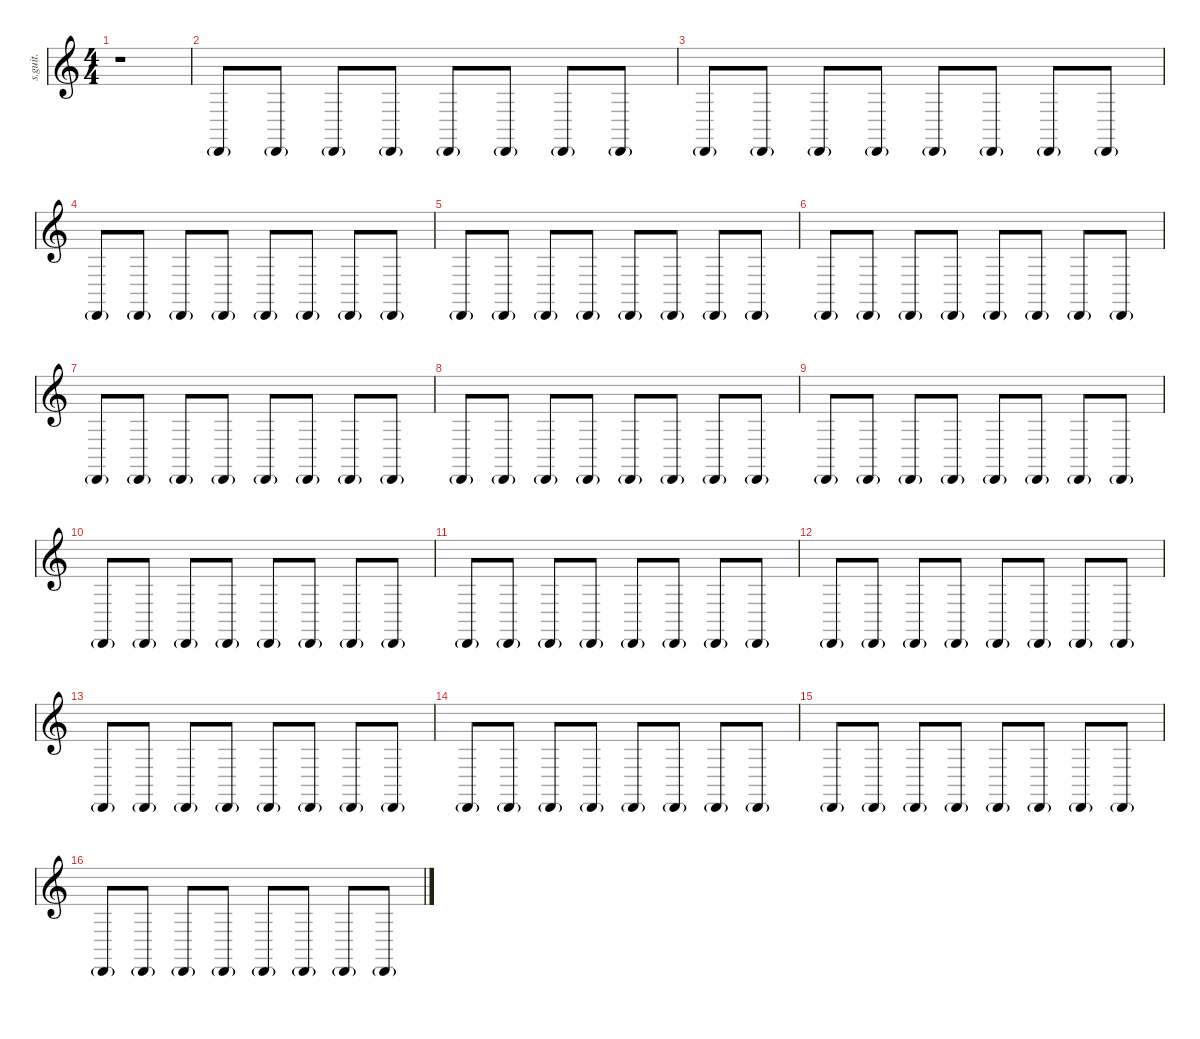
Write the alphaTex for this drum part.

\defaultSystemsLayout 4
\hideDynamics
\bracketExtendMode nobrackets
\track ("Shaker" "s.guit.") {instrument percussion}
\staff {score}
\articulation defaults
\ts (4 4)
\tempo (124 hide)
\clef g2
\ks c
r.1{dy mp} |
"Cabasa (hit)"{g}.8{lyrics (0 "") lyrics (1 "") lyrics (2 "") lyrics (3 "") lyrics (4 "") dy p} "Cabasa (hit)"{g}.8{lyrics (0 "") lyrics (1 "") lyrics (2 "") lyrics (3 "") lyrics (4 "") dy pp} "Cabasa (hit)"{g}.8{lyrics (0 "") lyrics (1 "") lyrics (2 "") lyrics (3 "") lyrics (4 "") dy p} "Cabasa (hit)"{g}.8{lyrics (0 "") lyrics (1 "") lyrics (2 "") lyrics (3 "") lyrics (4 "") dy pp} "Cabasa (hit)"{g}.8{lyrics (0 "") lyrics (1 "") lyrics (2 "") lyrics (3 "") lyrics (4 "") dy p} "Cabasa (hit)"{g}.8{lyrics (0 "") lyrics (1 "") lyrics (2 "") lyrics (3 "") lyrics (4 "") dy pp} "Cabasa (hit)"{g}.8{lyrics (0 "") lyrics (1 "") lyrics (2 "") lyrics (3 "") lyrics (4 "") dy p} "Cabasa (hit)"{g}.8{lyrics (0 "") lyrics (1 "") lyrics (2 "") lyrics (3 "") lyrics (4 "") dy pp} |
"Cabasa (hit)"{g}.8{lyrics (0 "") lyrics (1 "") lyrics (2 "") lyrics (3 "") lyrics (4 "") dy p} "Cabasa (hit)"{g}.8{lyrics (0 "") lyrics (1 "") lyrics (2 "") lyrics (3 "") lyrics (4 "") dy pp} "Cabasa (hit)"{g}.8{lyrics (0 "") lyrics (1 "") lyrics (2 "") lyrics (3 "") lyrics (4 "") dy p} "Cabasa (hit)"{g}.8{lyrics (0 "") lyrics (1 "") lyrics (2 "") lyrics (3 "") lyrics (4 "") dy pp} "Cabasa (hit)"{g}.8{lyrics (0 "") lyrics (1 "") lyrics (2 "") lyrics (3 "") lyrics (4 "") dy p} "Cabasa (hit)"{g}.8{lyrics (0 "") lyrics (1 "") lyrics (2 "") lyrics (3 "") lyrics (4 "") dy pp} "Cabasa (hit)"{g}.8{lyrics (0 "") lyrics (1 "") lyrics (2 "") lyrics (3 "") lyrics (4 "") dy p} "Cabasa (hit)"{g}.8{lyrics (0 "") lyrics (1 "") lyrics (2 "") lyrics (3 "") lyrics (4 "") dy pp} |
"Cabasa (hit)"{g}.8{lyrics (0 "") lyrics (1 "") lyrics (2 "") lyrics (3 "") lyrics (4 "") dy p} "Cabasa (hit)"{g}.8{lyrics (0 "") lyrics (1 "") lyrics (2 "") lyrics (3 "") lyrics (4 "") dy pp} "Cabasa (hit)"{g}.8{lyrics (0 "") lyrics (1 "") lyrics (2 "") lyrics (3 "") lyrics (4 "") dy p} "Cabasa (hit)"{g}.8{lyrics (0 "") lyrics (1 "") lyrics (2 "") lyrics (3 "") lyrics (4 "") dy pp} "Cabasa (hit)"{g}.8{lyrics (0 "") lyrics (1 "") lyrics (2 "") lyrics (3 "") lyrics (4 "") dy p} "Cabasa (hit)"{g}.8{lyrics (0 "") lyrics (1 "") lyrics (2 "") lyrics (3 "") lyrics (4 "") dy pp} "Cabasa (hit)"{g}.8{lyrics (0 "") lyrics (1 "") lyrics (2 "") lyrics (3 "") lyrics (4 "") dy p} "Cabasa (hit)"{g}.8{lyrics (0 "") lyrics (1 "") lyrics (2 "") lyrics (3 "") lyrics (4 "") dy pp} |
"Cabasa (hit)"{g}.8{lyrics (0 "") lyrics (1 "") lyrics (2 "") lyrics (3 "") lyrics (4 "") dy p} "Cabasa (hit)"{g}.8{lyrics (0 "") lyrics (1 "") lyrics (2 "") lyrics (3 "") lyrics (4 "") dy pp} "Cabasa (hit)"{g}.8{lyrics (0 "") lyrics (1 "") lyrics (2 "") lyrics (3 "") lyrics (4 "") dy p} "Cabasa (hit)"{g}.8{lyrics (0 "") lyrics (1 "") lyrics (2 "") lyrics (3 "") lyrics (4 "") dy pp} "Cabasa (hit)"{g}.8{lyrics (0 "") lyrics (1 "") lyrics (2 "") lyrics (3 "") lyrics (4 "") dy p} "Cabasa (hit)"{g}.8{lyrics (0 "") lyrics (1 "") lyrics (2 "") lyrics (3 "") lyrics (4 "") dy pp} "Cabasa (hit)"{g}.8{lyrics (0 "") lyrics (1 "") lyrics (2 "") lyrics (3 "") lyrics (4 "") dy p} "Cabasa (hit)"{g}.8{lyrics (0 "") lyrics (1 "") lyrics (2 "") lyrics (3 "") lyrics (4 "") dy pp} |
"Cabasa (hit)"{g}.8{lyrics (0 "") lyrics (1 "") lyrics (2 "") lyrics (3 "") lyrics (4 "") dy p} "Cabasa (hit)"{g}.8{lyrics (0 "") lyrics (1 "") lyrics (2 "") lyrics (3 "") lyrics (4 "") dy pp} "Cabasa (hit)"{g}.8{lyrics (0 "") lyrics (1 "") lyrics (2 "") lyrics (3 "") lyrics (4 "") dy p} "Cabasa (hit)"{g}.8{lyrics (0 "") lyrics (1 "") lyrics (2 "") lyrics (3 "") lyrics (4 "") dy pp} "Cabasa (hit)"{g}.8{lyrics (0 "") lyrics (1 "") lyrics (2 "") lyrics (3 "") lyrics (4 "") dy p} "Cabasa (hit)"{g}.8{lyrics (0 "") lyrics (1 "") lyrics (2 "") lyrics (3 "") lyrics (4 "") dy pp} "Cabasa (hit)"{g}.8{lyrics (0 "") lyrics (1 "") lyrics (2 "") lyrics (3 "") lyrics (4 "") dy p} "Cabasa (hit)"{g}.8{lyrics (0 "") lyrics (1 "") lyrics (2 "") lyrics (3 "") lyrics (4 "") dy pp} |
"Cabasa (hit)"{g}.8{lyrics (0 "") lyrics (1 "") lyrics (2 "") lyrics (3 "") lyrics (4 "") dy p} "Cabasa (hit)"{g}.8{lyrics (0 "") lyrics (1 "") lyrics (2 "") lyrics (3 "") lyrics (4 "") dy pp} "Cabasa (hit)"{g}.8{lyrics (0 "") lyrics (1 "") lyrics (2 "") lyrics (3 "") lyrics (4 "") dy p} "Cabasa (hit)"{g}.8{lyrics (0 "") lyrics (1 "") lyrics (2 "") lyrics (3 "") lyrics (4 "") dy pp} "Cabasa (hit)"{g}.8{lyrics (0 "") lyrics (1 "") lyrics (2 "") lyrics (3 "") lyrics (4 "") dy p} "Cabasa (hit)"{g}.8{lyrics (0 "") lyrics (1 "") lyrics (2 "") lyrics (3 "") lyrics (4 "") dy pp} "Cabasa (hit)"{g}.8{lyrics (0 "") lyrics (1 "") lyrics (2 "") lyrics (3 "") lyrics (4 "") dy p} "Cabasa (hit)"{g}.8{lyrics (0 "") lyrics (1 "") lyrics (2 "") lyrics (3 "") lyrics (4 "") dy pp} |
"Cabasa (hit)"{g}.8{lyrics (0 "") lyrics (1 "") lyrics (2 "") lyrics (3 "") lyrics (4 "") dy p} "Cabasa (hit)"{g}.8{lyrics (0 "") lyrics (1 "") lyrics (2 "") lyrics (3 "") lyrics (4 "") dy pp} "Cabasa (hit)"{g}.8{lyrics (0 "") lyrics (1 "") lyrics (2 "") lyrics (3 "") lyrics (4 "") dy p} "Cabasa (hit)"{g}.8{lyrics (0 "") lyrics (1 "") lyrics (2 "") lyrics (3 "") lyrics (4 "") dy pp} "Cabasa (hit)"{g}.8{lyrics (0 "") lyrics (1 "") lyrics (2 "") lyrics (3 "") lyrics (4 "") dy p} "Cabasa (hit)"{g}.8{lyrics (0 "") lyrics (1 "") lyrics (2 "") lyrics (3 "") lyrics (4 "") dy pp} "Cabasa (hit)"{g}.8{lyrics (0 "") lyrics (1 "") lyrics (2 "") lyrics (3 "") lyrics (4 "") dy p} "Cabasa (hit)"{g}.8{lyrics (0 "") lyrics (1 "") lyrics (2 "") lyrics (3 "") lyrics (4 "") dy pp} |
"Cabasa (hit)"{g}.8{lyrics (0 "") lyrics (1 "") lyrics (2 "") lyrics (3 "") lyrics (4 "") dy p} "Cabasa (hit)"{g}.8{lyrics (0 "") lyrics (1 "") lyrics (2 "") lyrics (3 "") lyrics (4 "") dy pp} "Cabasa (hit)"{g}.8{lyrics (0 "") lyrics (1 "") lyrics (2 "") lyrics (3 "") lyrics (4 "") dy p} "Cabasa (hit)"{g}.8{lyrics (0 "") lyrics (1 "") lyrics (2 "") lyrics (3 "") lyrics (4 "") dy pp} "Cabasa (hit)"{g}.8{lyrics (0 "") lyrics (1 "") lyrics (2 "") lyrics (3 "") lyrics (4 "") dy p} "Cabasa (hit)"{g}.8{lyrics (0 "") lyrics (1 "") lyrics (2 "") lyrics (3 "") lyrics (4 "") dy pp} "Cabasa (hit)"{g}.8{lyrics (0 "") lyrics (1 "") lyrics (2 "") lyrics (3 "") lyrics (4 "") dy p} "Cabasa (hit)"{g}.8{lyrics (0 "") lyrics (1 "") lyrics (2 "") lyrics (3 "") lyrics (4 "") dy pp} |
"Cabasa (hit)"{g}.8{lyrics (0 "") lyrics (1 "") lyrics (2 "") lyrics (3 "") lyrics (4 "") dy p} "Cabasa (hit)"{g}.8{lyrics (0 "") lyrics (1 "") lyrics (2 "") lyrics (3 "") lyrics (4 "") dy pp} "Cabasa (hit)"{g}.8{lyrics (0 "") lyrics (1 "") lyrics (2 "") lyrics (3 "") lyrics (4 "") dy p} "Cabasa (hit)"{g}.8{lyrics (0 "") lyrics (1 "") lyrics (2 "") lyrics (3 "") lyrics (4 "") dy pp} "Cabasa (hit)"{g}.8{lyrics (0 "") lyrics (1 "") lyrics (2 "") lyrics (3 "") lyrics (4 "") dy p} "Cabasa (hit)"{g}.8{lyrics (0 "") lyrics (1 "") lyrics (2 "") lyrics (3 "") lyrics (4 "") dy pp} "Cabasa (hit)"{g}.8{lyrics (0 "") lyrics (1 "") lyrics (2 "") lyrics (3 "") lyrics (4 "") dy p} "Cabasa (hit)"{g}.8{lyrics (0 "") lyrics (1 "") lyrics (2 "") lyrics (3 "") lyrics (4 "") dy pp} |
"Cabasa (hit)"{g}.8{lyrics (0 "") lyrics (1 "") lyrics (2 "") lyrics (3 "") lyrics (4 "") dy p} "Cabasa (hit)"{g}.8{lyrics (0 "") lyrics (1 "") lyrics (2 "") lyrics (3 "") lyrics (4 "") dy pp} "Cabasa (hit)"{g}.8{lyrics (0 "") lyrics (1 "") lyrics (2 "") lyrics (3 "") lyrics (4 "") dy p} "Cabasa (hit)"{g}.8{lyrics (0 "") lyrics (1 "") lyrics (2 "") lyrics (3 "") lyrics (4 "") dy pp} "Cabasa (hit)"{g}.8{lyrics (0 "") lyrics (1 "") lyrics (2 "") lyrics (3 "") lyrics (4 "") dy p} "Cabasa (hit)"{g}.8{lyrics (0 "") lyrics (1 "") lyrics (2 "") lyrics (3 "") lyrics (4 "") dy pp} "Cabasa (hit)"{g}.8{lyrics (0 "") lyrics (1 "") lyrics (2 "") lyrics (3 "") lyrics (4 "") dy p} "Cabasa (hit)"{g}.8{lyrics (0 "") lyrics (1 "") lyrics (2 "") lyrics (3 "") lyrics (4 "") dy pp} |
"Cabasa (hit)"{g}.8{lyrics (0 "") lyrics (1 "") lyrics (2 "") lyrics (3 "") lyrics (4 "") dy p} "Cabasa (hit)"{g}.8{lyrics (0 "") lyrics (1 "") lyrics (2 "") lyrics (3 "") lyrics (4 "") dy pp} "Cabasa (hit)"{g}.8{lyrics (0 "") lyrics (1 "") lyrics (2 "") lyrics (3 "") lyrics (4 "") dy p} "Cabasa (hit)"{g}.8{lyrics (0 "") lyrics (1 "") lyrics (2 "") lyrics (3 "") lyrics (4 "") dy pp} "Cabasa (hit)"{g}.8{lyrics (0 "") lyrics (1 "") lyrics (2 "") lyrics (3 "") lyrics (4 "") dy p} "Cabasa (hit)"{g}.8{lyrics (0 "") lyrics (1 "") lyrics (2 "") lyrics (3 "") lyrics (4 "") dy pp} "Cabasa (hit)"{g}.8{lyrics (0 "") lyrics (1 "") lyrics (2 "") lyrics (3 "") lyrics (4 "") dy p} "Cabasa (hit)"{g}.8{lyrics (0 "") lyrics (1 "") lyrics (2 "") lyrics (3 "") lyrics (4 "") dy pp} |
"Cabasa (hit)"{g}.8{lyrics (0 "") lyrics (1 "") lyrics (2 "") lyrics (3 "") lyrics (4 "") dy p} "Cabasa (hit)"{g}.8{lyrics (0 "") lyrics (1 "") lyrics (2 "") lyrics (3 "") lyrics (4 "") dy pp} "Cabasa (hit)"{g}.8{lyrics (0 "") lyrics (1 "") lyrics (2 "") lyrics (3 "") lyrics (4 "") dy p} "Cabasa (hit)"{g}.8{lyrics (0 "") lyrics (1 "") lyrics (2 "") lyrics (3 "") lyrics (4 "") dy pp} "Cabasa (hit)"{g}.8{lyrics (0 "") lyrics (1 "") lyrics (2 "") lyrics (3 "") lyrics (4 "") dy p} "Cabasa (hit)"{g}.8{lyrics (0 "") lyrics (1 "") lyrics (2 "") lyrics (3 "") lyrics (4 "") dy pp} "Cabasa (hit)"{g}.8{lyrics (0 "") lyrics (1 "") lyrics (2 "") lyrics (3 "") lyrics (4 "") dy p} "Cabasa (hit)"{g}.8{lyrics (0 "") lyrics (1 "") lyrics (2 "") lyrics (3 "") lyrics (4 "") dy pp} |
"Cabasa (hit)"{g}.8{lyrics (0 "") lyrics (1 "") lyrics (2 "") lyrics (3 "") lyrics (4 "") dy p} "Cabasa (hit)"{g}.8{lyrics (0 "") lyrics (1 "") lyrics (2 "") lyrics (3 "") lyrics (4 "") dy pp} "Cabasa (hit)"{g}.8{lyrics (0 "") lyrics (1 "") lyrics (2 "") lyrics (3 "") lyrics (4 "") dy p} "Cabasa (hit)"{g}.8{lyrics (0 "") lyrics (1 "") lyrics (2 "") lyrics (3 "") lyrics (4 "") dy pp} "Cabasa (hit)"{g}.8{lyrics (0 "") lyrics (1 "") lyrics (2 "") lyrics (3 "") lyrics (4 "") dy p} "Cabasa (hit)"{g}.8{lyrics (0 "") lyrics (1 "") lyrics (2 "") lyrics (3 "") lyrics (4 "") dy pp} "Cabasa (hit)"{g}.8{lyrics (0 "") lyrics (1 "") lyrics (2 "") lyrics (3 "") lyrics (4 "") dy p} "Cabasa (hit)"{g}.8{lyrics (0 "") lyrics (1 "") lyrics (2 "") lyrics (3 "") lyrics (4 "") dy pp} |
"Cabasa (hit)"{g}.8{lyrics (0 "") lyrics (1 "") lyrics (2 "") lyrics (3 "") lyrics (4 "") dy p} "Cabasa (hit)"{g}.8{lyrics (0 "") lyrics (1 "") lyrics (2 "") lyrics (3 "") lyrics (4 "") dy pp} "Cabasa (hit)"{g}.8{lyrics (0 "") lyrics (1 "") lyrics (2 "") lyrics (3 "") lyrics (4 "") dy p} "Cabasa (hit)"{g}.8{lyrics (0 "") lyrics (1 "") lyrics (2 "") lyrics (3 "") lyrics (4 "") dy pp} "Cabasa (hit)"{g}.8{lyrics (0 "") lyrics (1 "") lyrics (2 "") lyrics (3 "") lyrics (4 "") dy p} "Cabasa (hit)"{g}.8{lyrics (0 "") lyrics (1 "") lyrics (2 "") lyrics (3 "") lyrics (4 "") dy pp} "Cabasa (hit)"{g}.8{lyrics (0 "") lyrics (1 "") lyrics (2 "") lyrics (3 "") lyrics (4 "") dy p} "Cabasa (hit)"{g}.8{lyrics (0 "") lyrics (1 "") lyrics (2 "") lyrics (3 "") lyrics (4 "") dy pp} |
"Cabasa (hit)"{g}.8{lyrics (0 "") lyrics (1 "") lyrics (2 "") lyrics (3 "") lyrics (4 "") dy p} "Cabasa (hit)"{g}.8{lyrics (0 "") lyrics (1 "") lyrics (2 "") lyrics (3 "") lyrics (4 "") dy pp} "Cabasa (hit)"{g}.8{lyrics (0 "") lyrics (1 "") lyrics (2 "") lyrics (3 "") lyrics (4 "") dy p} "Cabasa (hit)"{g}.8{lyrics (0 "") lyrics (1 "") lyrics (2 "") lyrics (3 "") lyrics (4 "") dy pp} "Cabasa (hit)"{g}.8{lyrics (0 "") lyrics (1 "") lyrics (2 "") lyrics (3 "") lyrics (4 "") dy p} "Cabasa (hit)"{g}.8{lyrics (0 "") lyrics (1 "") lyrics (2 "") lyrics (3 "") lyrics (4 "") dy pp} "Cabasa (hit)"{g}.8{lyrics (0 "") lyrics (1 "") lyrics (2 "") lyrics (3 "") lyrics (4 "") dy p} "Cabasa (hit)"{g}.8{lyrics (0 "") lyrics (1 "") lyrics (2 "") lyrics (3 "") lyrics (4 "") dy pp}
